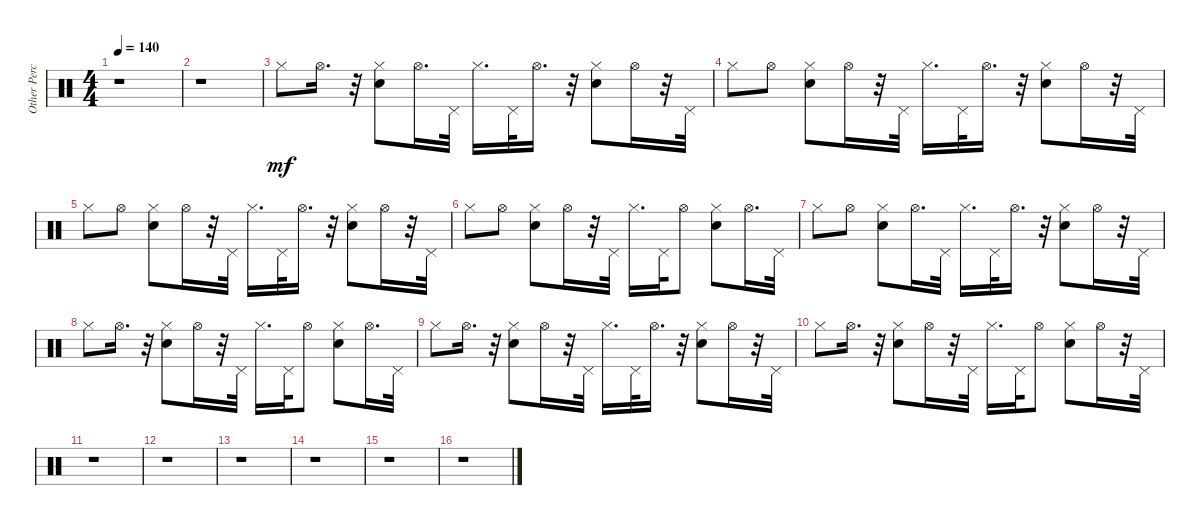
\track ("Other Percussion" "Other Perc") {instrument percussion}
\staff {score}
\articulation defaults
\ts (4 4)
\tempo 140
\clef neutral
\ks c
r.1{dy mf} |
r.1 |
"Hi-Hat (closed)".8 "Hi-Hat (open)".16{d} r.32 ("Hand Clap (hit)" "Hi-Hat (closed)").8 "Hi-Hat (open)".16{d} "Pedal Hi-Hat (hit)".32 "Hi-Hat (closed)".16{d} "Pedal Hi-Hat (hit)".32 "Hi-Hat (open)".16{d} r.32 ("Hand Clap (hit)" "Hi-Hat (closed)").8 "Hi-Hat (open)".16 r.32 "Pedal Hi-Hat (hit)".32 |
"Hi-Hat (closed)".8 "Hi-Hat (open)".8 ("Hand Clap (hit)" "Hi-Hat (closed)").8 "Hi-Hat (open)".16 r.32 "Pedal Hi-Hat (hit)".32 "Hi-Hat (closed)".16{d} "Pedal Hi-Hat (hit)".32 "Hi-Hat (open)".16{d} r.32 ("Hand Clap (hit)" "Hi-Hat (closed)").8 "Hi-Hat (open)".16 r.32 "Pedal Hi-Hat (hit)".32 |
"Hi-Hat (closed)".8 "Hi-Hat (open)".8 ("Hand Clap (hit)" "Hi-Hat (closed)").8 "Hi-Hat (open)".16 r.32 "Pedal Hi-Hat (hit)".32 "Hi-Hat (closed)".16{d} "Pedal Hi-Hat (hit)".32 "Hi-Hat (open)".16{d} r.32 ("Hand Clap (hit)" "Hi-Hat (closed)").8 "Hi-Hat (open)".16 r.32 "Pedal Hi-Hat (hit)".32 |
"Hi-Hat (closed)".8 "Hi-Hat (open)".8 ("Hand Clap (hit)" "Hi-Hat (closed)").8 "Hi-Hat (open)".16 r.32 "Pedal Hi-Hat (hit)".32 "Hi-Hat (closed)".16{d} "Pedal Hi-Hat (hit)".32 "Hi-Hat (open)".8 ("Hand Clap (hit)" "Hi-Hat (closed)").8 "Hi-Hat (open)".16{d} "Pedal Hi-Hat (hit)".32 |
"Hi-Hat (closed)".8 "Hi-Hat (open)".8 ("Hand Clap (hit)" "Hi-Hat (closed)").8 "Hi-Hat (open)".16{d} "Pedal Hi-Hat (hit)".32 "Hi-Hat (closed)".16{d} "Pedal Hi-Hat (hit)".32 "Hi-Hat (open)".16{d} r.32 ("Hand Clap (hit)" "Hi-Hat (closed)").8 "Hi-Hat (open)".16 r.32 "Pedal Hi-Hat (hit)".32 |
"Hi-Hat (closed)".8 "Hi-Hat (open)".16{d} r.32 ("Hand Clap (hit)" "Hi-Hat (closed)").8 "Hi-Hat (open)".16 r.32 "Pedal Hi-Hat (hit)".32 "Hi-Hat (closed)".16{d} "Pedal Hi-Hat (hit)".32 "Hi-Hat (open)".8 ("Hand Clap (hit)" "Hi-Hat (closed)").8 "Hi-Hat (open)".16{d} "Pedal Hi-Hat (hit)".32 |
"Hi-Hat (closed)".8 "Hi-Hat (open)".16{d} r.32 ("Hand Clap (hit)" "Hi-Hat (closed)").8 "Hi-Hat (open)".16 r.32 "Pedal Hi-Hat (hit)".32 "Hi-Hat (closed)".16{d} "Pedal Hi-Hat (hit)".32 "Hi-Hat (open)".16{d} r.32 ("Hand Clap (hit)" "Hi-Hat (closed)").8 "Hi-Hat (open)".16 r.32 "Pedal Hi-Hat (hit)".32 |
"Hi-Hat (closed)".8 "Hi-Hat (open)".16{d} r.32 ("Hand Clap (hit)" "Hi-Hat (closed)").8 "Hi-Hat (open)".16 r.32 "Pedal Hi-Hat (hit)".32 "Hi-Hat (closed)".16{d} "Pedal Hi-Hat (hit)".32 "Hi-Hat (open)".8 ("Hand Clap (hit)" "Hi-Hat (closed)").8 "Hi-Hat (open)".16 r.32 "Pedal Hi-Hat (hit)".32 |
r.1 |
r.1 |
r.1 |
r.1 |
r.1 |
r.1
